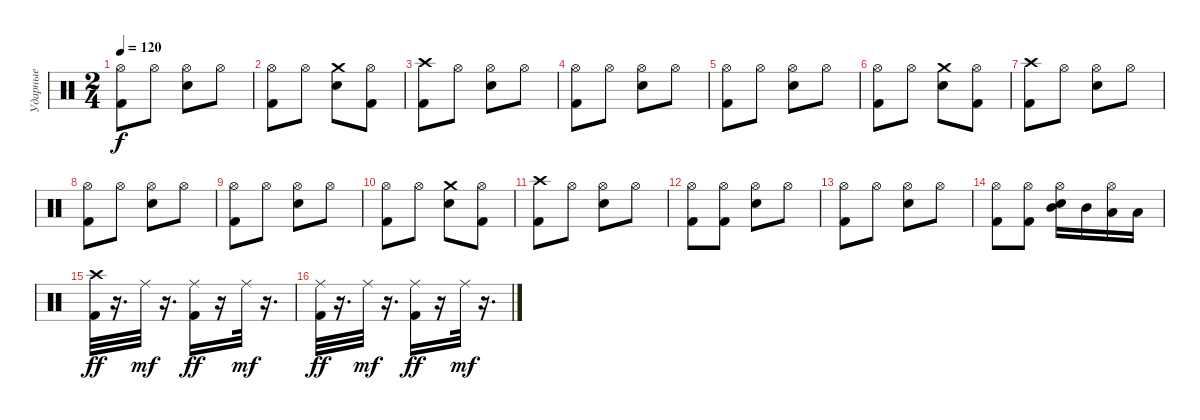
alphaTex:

\track ("Ударные" "Ударные") {instrument percussion}
\staff {score}
\articulation defaults
\ts (2 4)
\tempo 120
\clef neutral
\ks c
("Hi-Hat (open)" "Kick (hit) 2").8{dy f} "Hi-Hat (open)".8 ("Hi-Hat (open)" "Electric Snare (hit)").8 "Hi-Hat (open)".8 |
("Hi-Hat (open)" "Kick (hit) 2").8 "Hi-Hat (open)".8 ("Crash medium (hit)" "Electric Snare (hit)").8 ("Hi-Hat (open)" "Kick (hit) 2").8 |
("Crash high (hit)" "Kick (hit) 2").8 "Hi-Hat (open)".8 ("Hi-Hat (open)" "Electric Snare (hit)").8 "Hi-Hat (open)".8 |
("Hi-Hat (open)" "Kick (hit) 2").8 "Hi-Hat (open)".8 ("Hi-Hat (open)" "Electric Snare (hit)").8 "Hi-Hat (open)".8 |
("Hi-Hat (open)" "Kick (hit) 2").8 "Hi-Hat (open)".8 ("Hi-Hat (open)" "Electric Snare (hit)").8 "Hi-Hat (open)".8 |
("Hi-Hat (open)" "Kick (hit) 2").8 "Hi-Hat (open)".8 ("Crash medium (hit)" "Electric Snare (hit)").8 ("Hi-Hat (open)" "Kick (hit) 2").8 |
("Crash high (hit)" "Kick (hit) 2").8 "Hi-Hat (open)".8 ("Hi-Hat (open)" "Electric Snare (hit)").8 "Hi-Hat (open)".8 |
("Hi-Hat (open)" "Kick (hit) 2").8 "Hi-Hat (open)".8 ("Hi-Hat (open)" "Electric Snare (hit)").8 "Hi-Hat (open)".8 |
("Hi-Hat (open)" "Kick (hit) 2").8 "Hi-Hat (open)".8 ("Hi-Hat (open)" "Electric Snare (hit)").8 "Hi-Hat (open)".8 |
("Hi-Hat (open)" "Kick (hit) 2").8 "Hi-Hat (open)".8 ("Crash medium (hit)" "Electric Snare (hit)").8 ("Hi-Hat (open)" "Kick (hit) 2").8 |
("Crash high (hit)" "Kick (hit) 2").8 "Hi-Hat (open)".8 ("Hi-Hat (open)" "Electric Snare (hit)").8 "Hi-Hat (open)".8 |
("Hi-Hat (open)" "Kick (hit) 2").8 ("Hi-Hat (open)" "Kick (hit) 2").8 ("Hi-Hat (open)" "Electric Snare (hit)").8 "Hi-Hat (open)".8 |
("Hi-Hat (open)" "Kick (hit) 2").8 "Hi-Hat (open)".8 ("Hi-Hat (open)" "Electric Snare (hit)").8 "Hi-Hat (open)".8 |
("Hi-Hat (open)" "Kick (hit) 2").8 ("Hi-Hat (open)" "Kick (hit) 2").8 ("Hi-Hat (open)" "Mid Tom (hit)" "Electric Snare (hit)").16 "Mid Tom (hit)".16 ("Hi-Hat (open)" "Low Tom (hit)").16 "Low Tom (hit)".16 |
("Crash high (hit)" "Kick (hit) 2").32{dy ff} r.16{d} "Ride (middle)".32{dy mf} r.16{d} ("Ride (middle)" "Kick (hit) 2").16{dy ff} r.16 "Ride (middle)".32{dy mf} r.16{d} |
("Ride (middle)" "Kick (hit) 2").32{dy ff} r.16{d} "Ride (middle)".32{dy mf} r.16{d} ("Ride (middle)" "Kick (hit) 2").16{dy ff} r.16 "Ride (middle)".32{dy mf} r.16{d}
